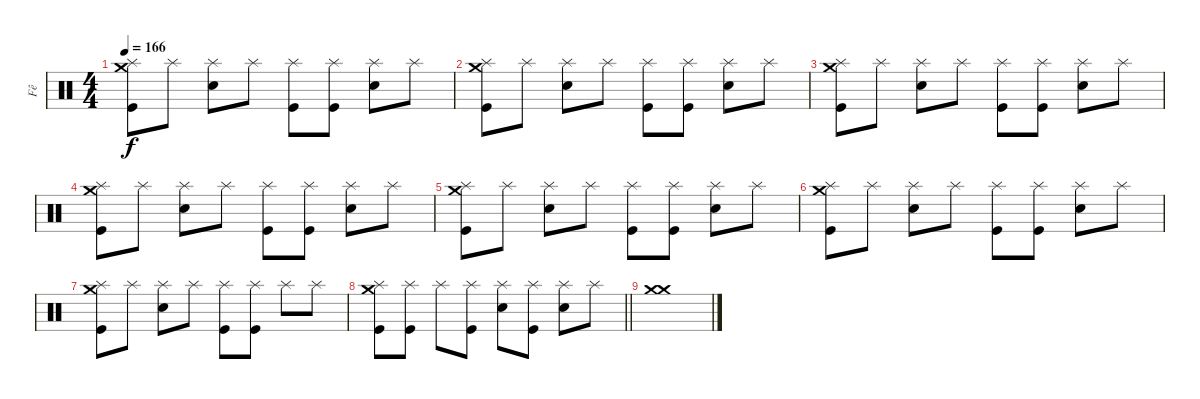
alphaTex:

\track ("Fê" "Fê") {instrument percussion}
\staff {score}
\articulation defaults
\ts (4 4)
\tempo 166
\clef neutral
\ks c
("Crash medium (hit)" "Splash (hit)" "Kick (hit)").8{dy f} "Splash (hit)".8 ("Splash (hit)" "Electric Snare (hit)").8 "Splash (hit)".8 ("Splash (hit)" "Kick (hit)").8 ("Splash (hit)" "Kick (hit)").8 ("Splash (hit)" "Electric Snare (hit)").8 "Splash (hit)".8 |
("Crash medium (hit)" "Splash (hit)" "Kick (hit)").8 "Splash (hit)".8 ("Splash (hit)" "Electric Snare (hit)").8 "Splash (hit)".8 ("Splash (hit)" "Kick (hit)").8 ("Splash (hit)" "Kick (hit)").8 ("Splash (hit)" "Electric Snare (hit)").8 "Splash (hit)".8 |
("Crash medium (hit)" "Splash (hit)" "Kick (hit)").8 "Splash (hit)".8 ("Splash (hit)" "Electric Snare (hit)").8 "Splash (hit)".8 ("Splash (hit)" "Kick (hit)").8 ("Splash (hit)" "Kick (hit)").8 ("Splash (hit)" "Electric Snare (hit)").8 "Splash (hit)".8 |
("Crash medium (hit)" "Splash (hit)" "Kick (hit)").8 "Splash (hit)".8 ("Splash (hit)" "Electric Snare (hit)").8 "Splash (hit)".8 ("Splash (hit)" "Kick (hit)").8 ("Splash (hit)" "Kick (hit)").8 ("Splash (hit)" "Electric Snare (hit)").8 "Splash (hit)".8 |
("Crash medium (hit)" "Splash (hit)" "Kick (hit)").8 "Splash (hit)".8 ("Splash (hit)" "Electric Snare (hit)").8 "Splash (hit)".8 ("Splash (hit)" "Kick (hit)").8 ("Splash (hit)" "Kick (hit)").8 ("Splash (hit)" "Electric Snare (hit)").8 "Splash (hit)".8 |
("Crash medium (hit)" "Splash (hit)" "Kick (hit)").8 "Splash (hit)".8 ("Splash (hit)" "Electric Snare (hit)").8 "Splash (hit)".8 ("Splash (hit)" "Kick (hit)").8 ("Splash (hit)" "Kick (hit)").8 ("Splash (hit)" "Electric Snare (hit)").8 "Splash (hit)".8 |
("Crash medium (hit)" "Splash (hit)" "Kick (hit)").8 "Splash (hit)".8 ("Splash (hit)" "Electric Snare (hit)").8 "Splash (hit)".8 ("Splash (hit)" "Kick (hit)").8 ("Splash (hit)" "Kick (hit)").8 "Splash (hit)".8 "Splash (hit)".8 |
\barLineRight lightlight
("Crash medium (hit)" "Splash (hit)" "Kick (hit)").8 ("Splash (hit)" "Kick (hit)").8 "Splash (hit)".8 ("Splash (hit)" "Kick (hit)").8 ("Splash (hit)" "Electric Snare (hit)").8 ("Splash (hit)" "Kick (hit)").8 ("Splash (hit)" "Electric Snare (hit)").8 "Splash (hit)".8 |
("Crash medium (hit)" "Crash medium (hit)").1{volume 0}
